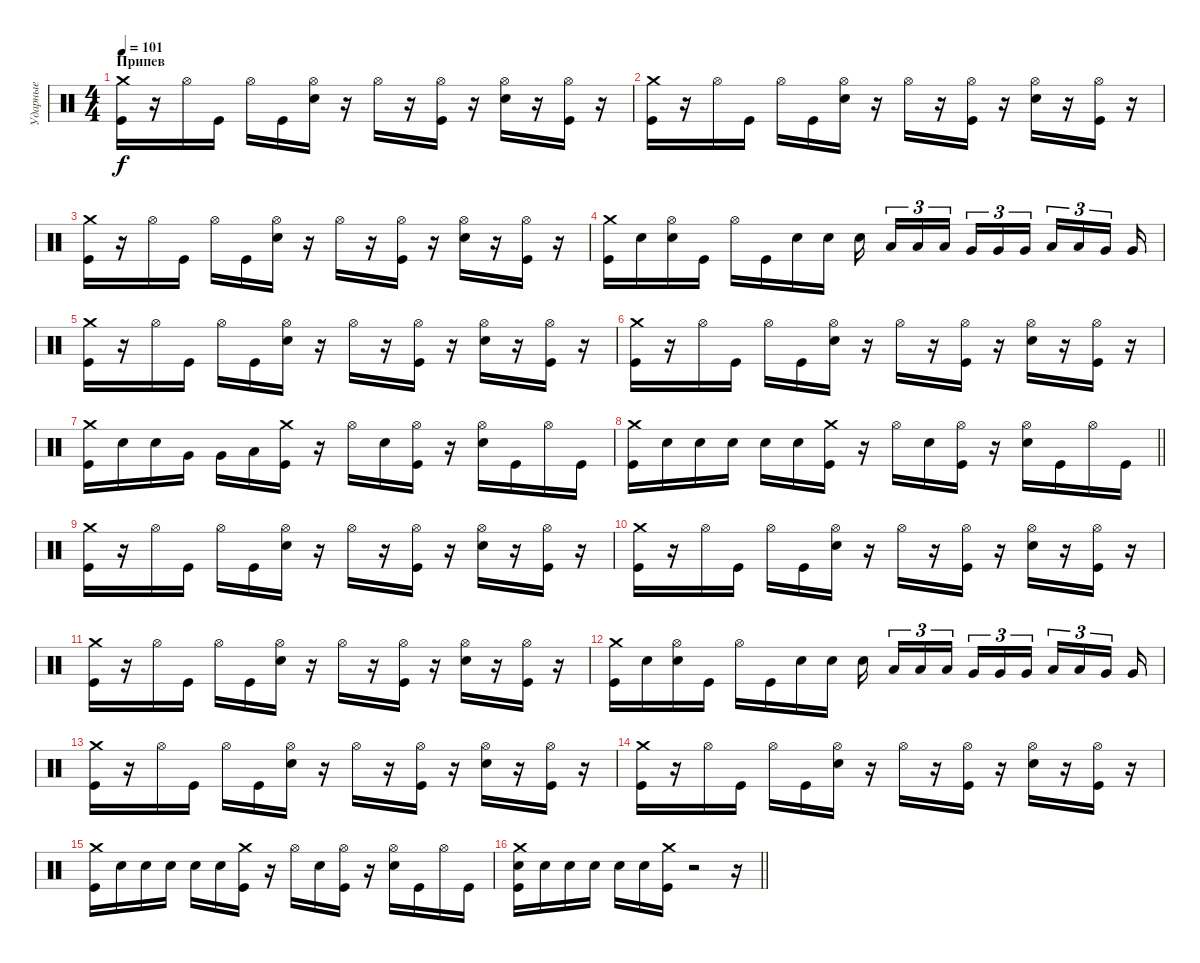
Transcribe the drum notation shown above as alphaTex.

\track ("Ударные" "Ударные") {instrument percussion}
\staff {score}
\articulation defaults
\ts (4 4)
\section ("" "Припев")
\tempo 101
\clef neutral
\ks c
("Crash medium (hit)" "Kick (hit)").16{dy f} r.16 "Hi-Hat (open)".16 "Kick (hit)".16 "Hi-Hat (open)".16 "Kick (hit)".16 ("Hi-Hat (open)" "Electric Snare (hit)").16 r.16 "Hi-Hat (open)".16 r.16 ("Hi-Hat (open)" "Kick (hit)").16 r.16 ("Hi-Hat (open)" "Electric Snare (hit)").16 r.16 ("Hi-Hat (open)" "Kick (hit)").16 r.16 |
("Crash medium (hit)" "Kick (hit)").16 r.16 "Hi-Hat (open)".16 "Kick (hit)".16 "Hi-Hat (open)".16 "Kick (hit)".16 ("Hi-Hat (open)" "Electric Snare (hit)").16 r.16 "Hi-Hat (open)".16 r.16 ("Hi-Hat (open)" "Kick (hit)").16 r.16 ("Hi-Hat (open)" "Electric Snare (hit)").16 r.16 ("Hi-Hat (open)" "Kick (hit)").16 r.16 |
("Crash medium (hit)" "Kick (hit)").16 r.16 "Hi-Hat (open)".16 "Kick (hit)".16 "Hi-Hat (open)".16 "Kick (hit)".16 ("Hi-Hat (open)" "Electric Snare (hit)").16 r.16 "Hi-Hat (open)".16 r.16 ("Hi-Hat (open)" "Kick (hit)").16 r.16 ("Hi-Hat (open)" "Electric Snare (hit)").16 r.16 ("Hi-Hat (open)" "Kick (hit)").16 r.16 |
("Crash medium (hit)" "Kick (hit)").16 "Electric Snare (hit)".16 ("Hi-Hat (open)" "Electric Snare (hit)").16 "Kick (hit)".16 "Hi-Hat (open)".16 "Kick (hit)".16 "Electric Snare (hit)".16 "Electric Snare (hit)".16 "Electric Snare (hit)".16{beam splitsecondary} "Low Tom (hit)".16{tu (3 2)} "Low Tom (hit)".16{tu (3 2)} "Low Tom (hit)".16{tu (3 2) beam splitsecondary} "Very Low Tom (hit)".16{tu (3 2)} "Very Low Tom (hit)".16{tu (3 2)} "Very Low Tom (hit)".16{tu (3 2) beam splitsecondary} "Low Tom (hit)".16{tu (3 2)} "Low Tom (hit)".16{tu (3 2)} "Very Low Tom (hit)".16{tu (3 2) beam splitsecondary} "Very Low Tom (hit)".16 |
("Crash medium (hit)" "Kick (hit)").16 r.16 "Hi-Hat (open)".16 "Kick (hit)".16 "Hi-Hat (open)".16 "Kick (hit)".16 ("Hi-Hat (open)" "Electric Snare (hit)").16 r.16 "Hi-Hat (open)".16 r.16 ("Hi-Hat (open)" "Kick (hit)").16 r.16 ("Hi-Hat (open)" "Electric Snare (hit)").16 r.16 ("Hi-Hat (open)" "Kick (hit)").16 r.16 |
("Crash medium (hit)" "Kick (hit)").16 r.16 "Hi-Hat (open)".16 "Kick (hit)".16 "Hi-Hat (open)".16 "Kick (hit)".16 ("Hi-Hat (open)" "Electric Snare (hit)").16 r.16 "Hi-Hat (open)".16 r.16 ("Hi-Hat (open)" "Kick (hit)").16 r.16 ("Hi-Hat (open)" "Electric Snare (hit)").16 r.16 ("Hi-Hat (open)" "Kick (hit)").16 r.16 |
("Crash medium (hit)" "Kick (hit)").16 "Electric Snare (hit)".16 "Electric Snare (hit)".16 "Very Low Tom (hit)".16 "Very Low Tom (hit)".16 "Low Tom (hit)".16 ("Crash medium (hit)" "Kick (hit)").16 r.16 "Hi-Hat (open)".16 "Electric Snare (hit)".16 ("Hi-Hat (open)" "Kick (hit)").16 r.16 ("Hi-Hat (open)" "Electric Snare (hit)").16 "Kick (hit)".16 "Hi-Hat (open)".16 "Kick (hit)".16 |
\barLineRight lightlight
("Crash medium (hit)" "Kick (hit)").16 "Electric Snare (hit)".16 "Electric Snare (hit)".16 "Electric Snare (hit)".16 "Electric Snare (hit)".16 "Electric Snare (hit)".16 ("Crash medium (hit)" "Kick (hit)").16 r.16 "Hi-Hat (open)".16 "Electric Snare (hit)".16 ("Hi-Hat (open)" "Kick (hit)").16 r.16 ("Hi-Hat (open)" "Electric Snare (hit)").16 "Kick (hit)".16 "Hi-Hat (open)".16 "Kick (hit)".16 |
("Crash medium (hit)" "Kick (hit)").16 r.16 "Hi-Hat (open)".16 "Kick (hit)".16 "Hi-Hat (open)".16 "Kick (hit)".16 ("Hi-Hat (open)" "Electric Snare (hit)").16 r.16 "Hi-Hat (open)".16 r.16 ("Hi-Hat (open)" "Kick (hit)").16 r.16 ("Hi-Hat (open)" "Electric Snare (hit)").16 r.16 ("Hi-Hat (open)" "Kick (hit)").16 r.16 |
("Crash medium (hit)" "Kick (hit)").16 r.16 "Hi-Hat (open)".16 "Kick (hit)".16 "Hi-Hat (open)".16 "Kick (hit)".16 ("Hi-Hat (open)" "Electric Snare (hit)").16 r.16 "Hi-Hat (open)".16 r.16 ("Hi-Hat (open)" "Kick (hit)").16 r.16 ("Hi-Hat (open)" "Electric Snare (hit)").16 r.16 ("Hi-Hat (open)" "Kick (hit)").16 r.16 |
("Crash medium (hit)" "Kick (hit)").16 r.16 "Hi-Hat (open)".16 "Kick (hit)".16 "Hi-Hat (open)".16 "Kick (hit)".16 ("Hi-Hat (open)" "Electric Snare (hit)").16 r.16 "Hi-Hat (open)".16 r.16 ("Hi-Hat (open)" "Kick (hit)").16 r.16 ("Hi-Hat (open)" "Electric Snare (hit)").16 r.16 ("Hi-Hat (open)" "Kick (hit)").16 r.16 |
("Crash medium (hit)" "Kick (hit)").16 "Electric Snare (hit)".16 ("Hi-Hat (open)" "Electric Snare (hit)").16 "Kick (hit)".16 "Hi-Hat (open)".16 "Kick (hit)".16 "Electric Snare (hit)".16 "Electric Snare (hit)".16 "Electric Snare (hit)".16{beam splitsecondary} "Low Tom (hit)".16{tu (3 2)} "Low Tom (hit)".16{tu (3 2)} "Low Tom (hit)".16{tu (3 2) beam splitsecondary} "Very Low Tom (hit)".16{tu (3 2)} "Very Low Tom (hit)".16{tu (3 2)} "Very Low Tom (hit)".16{tu (3 2) beam splitsecondary} "Low Tom (hit)".16{tu (3 2)} "Low Tom (hit)".16{tu (3 2)} "Very Low Tom (hit)".16{tu (3 2) beam splitsecondary} "Very Low Tom (hit)".16 |
("Crash medium (hit)" "Kick (hit)").16 r.16 "Hi-Hat (open)".16 "Kick (hit)".16 "Hi-Hat (open)".16 "Kick (hit)".16 ("Hi-Hat (open)" "Electric Snare (hit)").16 r.16 "Hi-Hat (open)".16 r.16 ("Hi-Hat (open)" "Kick (hit)").16 r.16 ("Hi-Hat (open)" "Electric Snare (hit)").16 r.16 ("Hi-Hat (open)" "Kick (hit)").16 r.16 |
("Crash medium (hit)" "Kick (hit)").16 r.16 "Hi-Hat (open)".16 "Kick (hit)".16 "Hi-Hat (open)".16 "Kick (hit)".16 ("Hi-Hat (open)" "Electric Snare (hit)").16 r.16 "Hi-Hat (open)".16 r.16 ("Hi-Hat (open)" "Kick (hit)").16 r.16 ("Hi-Hat (open)" "Electric Snare (hit)").16 r.16 ("Hi-Hat (open)" "Kick (hit)").16 r.16 |
("Crash medium (hit)" "Kick (hit)").16 "Electric Snare (hit)".16 "Electric Snare (hit)".16 "Electric Snare (hit)".16 "Electric Snare (hit)".16 "Electric Snare (hit)".16 ("Crash medium (hit)" "Kick (hit)").16 r.16 "Hi-Hat (open)".16 "Electric Snare (hit)".16 ("Hi-Hat (open)" "Kick (hit)").16 r.16 ("Hi-Hat (open)" "Electric Snare (hit)").16 "Kick (hit)".16 "Hi-Hat (open)".16 "Kick (hit)".16 |
\barLineRight lightlight
("Crash medium (hit)" "Electric Snare (hit)" "Kick (hit)").16 "Electric Snare (hit)".16 "Electric Snare (hit)".16 "Electric Snare (hit)".16 "Electric Snare (hit)".16 "Electric Snare (hit)".16 ("Crash medium (hit)" "Kick (hit)").16 r.2{volume 0} r.16
